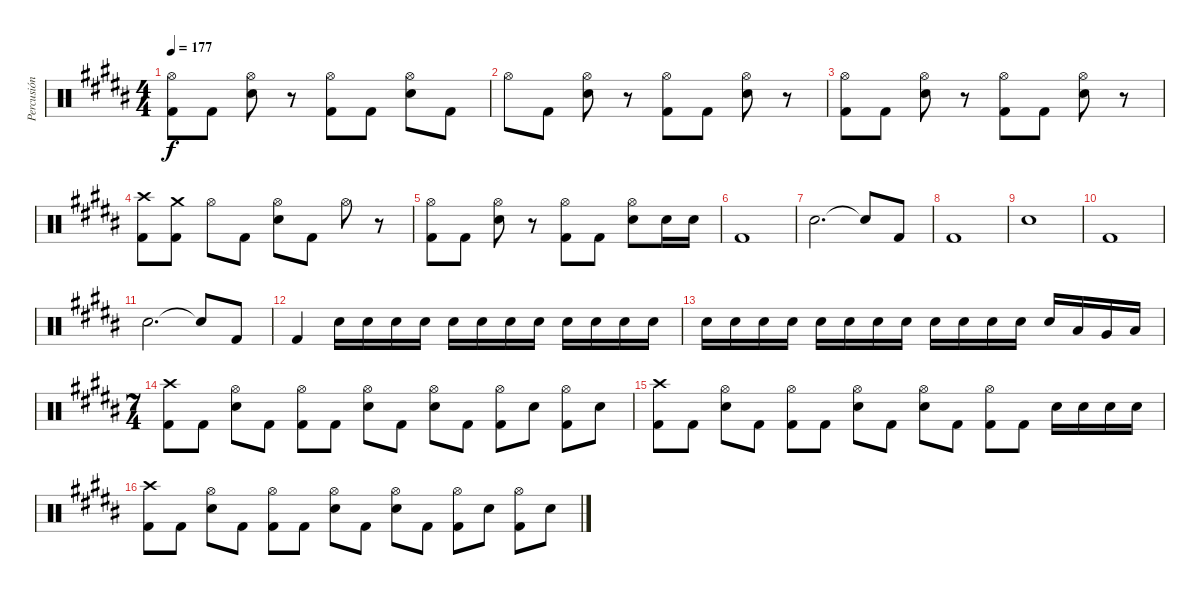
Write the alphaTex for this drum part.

\track ("Percusión" "Percusión") {instrument percussion}
\staff {score}
\articulation defaults
\ts (4 4)
\tempo 177
\clef neutral
\ks g#minor
("Kick (hit) 2" "Hi-Hat (open)").8{dy f} "Kick (hit) 2".8 ("Snare (hit) 2" "Hi-Hat (open)").8 r.8 ("Kick (hit) 2" "Hi-Hat (open)").8 "Kick (hit) 2".8 ("Snare (hit) 2" "Hi-Hat (open)").8 "Kick (hit) 2".8 |
"Hi-Hat (open)".8 "Kick (hit) 2".8 ("Snare (hit) 2" "Hi-Hat (open)").8 r.8 ("Kick (hit) 2" "Hi-Hat (open)").8 "Kick (hit) 2".8 ("Snare (hit) 2" "Hi-Hat (open)").8 r.8 |
("Kick (hit) 2" "Hi-Hat (open)").8 "Kick (hit) 2".8 ("Snare (hit) 2" "Hi-Hat (open)").8 r.8 ("Kick (hit) 2" "Hi-Hat (open)").8 "Kick (hit) 2".8 ("Snare (hit) 2" "Hi-Hat (open)").8 r.8 |
("Kick (hit) 2" "Crash high (hit)").8 ("Kick (hit) 2" "Crash medium (hit)").8 "Hi-Hat (open)".8 "Kick (hit) 2".8 ("Snare (hit) 2" "Hi-Hat (open)").8 "Kick (hit) 2".8 "Hi-Hat (open)".8 r.8 |
("Kick (hit) 2" "Hi-Hat (open)").8 "Kick (hit) 2".8 ("Snare (hit) 2" "Hi-Hat (open)").8 r.8 ("Kick (hit) 2" "Hi-Hat (open)").8 "Kick (hit) 2".8 ("Snare (hit) 2" "Hi-Hat (open)").8 "Snare (hit) 2".16 "Snare (hit) 2".16 |
"Kick (hit) 2".1 |
"Snare (hit) 2".2{d} "Snare (hit)"{t}.8 "Kick (hit) 2".8 |
"Kick (hit) 2".1 |
"Snare (hit) 2".1 |
"Kick (hit) 2".1 |
"Snare (hit) 2".2{d} "Snare (hit)"{t}.8 "Kick (hit) 2".8 |
"Kick (hit) 2".4 "Snare (hit) 2".16{volume 0} "Snare (hit) 2".16{volume 16} "Snare (hit) 2".16 "Snare (hit) 2".16 "Snare (hit) 2".16 "Snare (hit) 2".16 "Snare (hit) 2".16 "Snare (hit) 2".16 "Snare (hit) 2".16 "Snare (hit) 2".16 "Snare (hit) 2".16 "Snare (hit) 2".16 |
"Snare (hit) 2".16 "Snare (hit) 2".16 "Snare (hit) 2".16 "Snare (hit) 2".16 "Snare (hit) 2".16 "Snare (hit) 2".16 "Snare (hit) 2".16 "Snare (hit) 2".16 "Snare (hit) 2".16 "Snare (hit) 2".16 "Snare (hit) 2".16 "Snare (hit) 2".16 "Snare (hit) 2".16 "Low Tom (hit)".16 "Very Low Tom (hit)".16 "Low Floor Tom (hit)".16 |
\ts (7 4)
("Kick (hit) 2" "Crash high (hit)").8{volume 15} "Kick (hit) 2".8 ("Snare (hit) 2" "Hi-Hat (open)").8 "Kick (hit) 2".8 ("Kick (hit) 2" "Hi-Hat (open)").8 "Kick (hit) 2".8 ("Snare (hit) 2" "Hi-Hat (open)").8 "Kick (hit) 2".8 ("Snare (hit) 2" "Hi-Hat (open)").8 "Kick (hit) 2".8 ("Kick (hit) 2" "Hi-Hat (open)").8 "Snare (hit) 2".8 ("Kick (hit) 2" "Hi-Hat (open)").8 "Snare (hit) 2".8 |
("Kick (hit) 2" "Crash high (hit)").8 "Kick (hit) 2".8 ("Snare (hit) 2" "Hi-Hat (open)").8 "Kick (hit) 2".8 ("Kick (hit) 2" "Hi-Hat (open)").8 "Kick (hit) 2".8 ("Snare (hit) 2" "Hi-Hat (open)").8 "Kick (hit) 2".8 ("Snare (hit) 2" "Hi-Hat (open)").8 "Kick (hit) 2".8 ("Kick (hit) 2" "Hi-Hat (open)").8 "Kick (hit) 2".8 "Snare (hit) 2".16 "Snare (hit) 2".16 "Snare (hit) 2".16 "Snare (hit) 2".16 |
("Kick (hit) 2" "Crash high (hit)").8 "Kick (hit) 2".8 ("Snare (hit) 2" "Hi-Hat (open)").8 "Kick (hit) 2".8 ("Kick (hit) 2" "Hi-Hat (open)").8 "Kick (hit) 2".8 ("Snare (hit) 2" "Hi-Hat (open)").8 "Kick (hit) 2".8 ("Snare (hit) 2" "Hi-Hat (open)").8 "Kick (hit) 2".8 ("Kick (hit) 2" "Hi-Hat (open)").8 "Snare (hit) 2".8 ("Kick (hit) 2" "Hi-Hat (open)").8 "Snare (hit) 2".8
